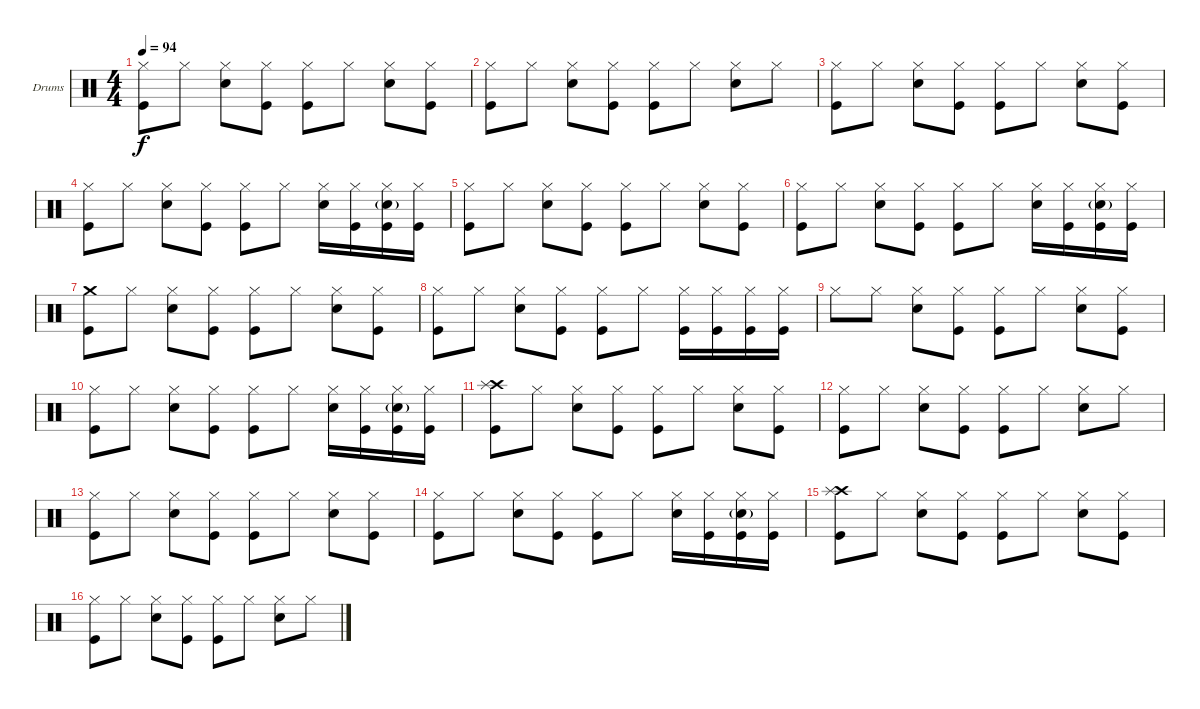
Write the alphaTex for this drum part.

\defaultSystemsLayout 4
\bracketExtendMode groupsimilarinstruments
\firstSystemTrackNameOrientation horizontal
\otherSystemsTrackNameOrientation horizontal
\track ("Drumkit" "Drums") {instrument percussion}
\staff {score}
\articulation defaults
\ts (4 4)
\tempo 94
\clef neutral
\ks c
("Kick (hit)" "Hi-Hat (closed)").8{dy f} "Hi-Hat (closed)".8 ("Hi-Hat (closed)" "Snare (hit) 2").8 ("Kick (hit)" "Hi-Hat (closed)").8 ("Kick (hit)" "Hi-Hat (closed)").8 "Hi-Hat (closed)".8 ("Snare (hit) 2" "Hi-Hat (closed)").8 ("Hi-Hat (closed)" "Kick (hit)").8 |
("Kick (hit)" "Hi-Hat (closed)").8 "Hi-Hat (closed)".8 ("Hi-Hat (closed)" "Snare (hit) 2").8 ("Hi-Hat (closed)" "Kick (hit)").8 ("Kick (hit)" "Hi-Hat (closed)").8 "Hi-Hat (closed)".8 ("Hi-Hat (closed)" "Snare (hit) 2").8 "Hi-Hat (closed)".8 |
("Kick (hit)" "Hi-Hat (closed)").8 "Hi-Hat (closed)".8 ("Hi-Hat (closed)" "Snare (hit) 2").8 ("Kick (hit)" "Hi-Hat (closed)").8 ("Kick (hit)" "Hi-Hat (closed)").8 "Hi-Hat (closed)".8 ("Snare (hit) 2" "Hi-Hat (closed)").8 ("Hi-Hat (closed)" "Kick (hit)").8 |
("Kick (hit)" "Hi-Hat (closed)").8 "Hi-Hat (closed)".8 ("Hi-Hat (closed)" "Snare (hit) 2").8 ("Hi-Hat (closed)" "Kick (hit)").8 ("Kick (hit)" "Hi-Hat (closed)").8 "Hi-Hat (closed)".8 ("Hi-Hat (closed)" "Snare (hit) 2").16 ("Hi-Hat (closed)" "Kick (hit)").16 ("Kick (hit)" "Hi-Hat (closed)" "Snare (hit) 2"{g}).16 ("Kick (hit)" "Hi-Hat (closed)").16 |
("Kick (hit)" "Hi-Hat (closed)").8 "Hi-Hat (closed)".8 ("Hi-Hat (closed)" "Snare (hit) 2").8 ("Kick (hit)" "Hi-Hat (closed)").8 ("Kick (hit)" "Hi-Hat (closed)").8 "Hi-Hat (closed)".8 ("Snare (hit) 2" "Hi-Hat (closed)").8 ("Hi-Hat (closed)" "Kick (hit)").8 |
("Kick (hit)" "Hi-Hat (closed)").8 "Hi-Hat (closed)".8 ("Hi-Hat (closed)" "Snare (hit) 2").8 ("Hi-Hat (closed)" "Kick (hit)").8 ("Kick (hit)" "Hi-Hat (closed)").8 "Hi-Hat (closed)".8 ("Hi-Hat (closed)" "Snare (hit) 2").16 ("Hi-Hat (closed)" "Kick (hit)").16 ("Kick (hit)" "Hi-Hat (closed)" "Snare (hit) 2"{g}).16 ("Kick (hit)" "Hi-Hat (closed)").16 |
("Kick (hit)" "Crash medium (hit)").8 "Hi-Hat (closed)".8 ("Hi-Hat (closed)" "Snare (hit) 2").8 ("Kick (hit)" "Hi-Hat (closed)").8 ("Kick (hit)" "Hi-Hat (closed)").8 "Hi-Hat (closed)".8 ("Snare (hit) 2" "Hi-Hat (closed)").8 ("Hi-Hat (closed)" "Kick (hit)").8 |
("Kick (hit)" "Hi-Hat (closed)").8 "Hi-Hat (closed)".8 ("Hi-Hat (closed)" "Snare (hit) 2").8 ("Hi-Hat (closed)" "Kick (hit)").8 ("Kick (hit)" "Hi-Hat (closed)").8 "Hi-Hat (closed)".8 ("Hi-Hat (closed)" "Kick (hit)").16 ("Hi-Hat (closed)" "Kick (hit)").16 ("Kick (hit)" "Hi-Hat (closed)").16 ("Kick (hit)" "Hi-Hat (closed)").16 |
"Hi-Hat (closed)".8 "Hi-Hat (closed)".8 ("Hi-Hat (closed)" "Snare (hit) 2").8 ("Kick (hit)" "Hi-Hat (closed)").8 ("Kick (hit)" "Hi-Hat (closed)").8 "Hi-Hat (closed)".8 ("Snare (hit) 2" "Hi-Hat (closed)").8 ("Hi-Hat (closed)" "Kick (hit)").8 |
("Kick (hit)" "Hi-Hat (closed)").8 "Hi-Hat (closed)".8 ("Hi-Hat (closed)" "Snare (hit) 2").8 ("Hi-Hat (closed)" "Kick (hit)").8 ("Kick (hit)" "Hi-Hat (closed)").8 "Hi-Hat (closed)".8 ("Hi-Hat (closed)" "Snare (hit) 2").16 ("Hi-Hat (closed)" "Kick (hit)").16 ("Kick (hit)" "Hi-Hat (closed)" "Snare (hit) 2"{g}).16 ("Kick (hit)" "Hi-Hat (closed)").16 |
("Kick (hit)" "Crash high (hit)" "Splash (hit)").8 "Hi-Hat (closed)".8 ("Hi-Hat (closed)" "Snare (hit) 2").8 ("Kick (hit)" "Hi-Hat (closed)").8 ("Kick (hit)" "Hi-Hat (closed)").8 "Hi-Hat (closed)".8 ("Snare (hit) 2" "Hi-Hat (closed)").8 ("Hi-Hat (closed)" "Kick (hit)").8 |
("Kick (hit)" "Hi-Hat (closed)").8 "Hi-Hat (closed)".8 ("Hi-Hat (closed)" "Snare (hit) 2").8 ("Hi-Hat (closed)" "Kick (hit)").8 ("Kick (hit)" "Hi-Hat (closed)").8 "Hi-Hat (closed)".8 ("Hi-Hat (closed)" "Snare (hit) 2").8 "Hi-Hat (closed)".8 |
("Kick (hit)" "Hi-Hat (closed)").8 "Hi-Hat (closed)".8 ("Hi-Hat (closed)" "Snare (hit) 2").8 ("Kick (hit)" "Hi-Hat (closed)").8 ("Kick (hit)" "Hi-Hat (closed)").8 "Hi-Hat (closed)".8 ("Snare (hit) 2" "Hi-Hat (closed)").8 ("Hi-Hat (closed)" "Kick (hit)").8 |
("Kick (hit)" "Hi-Hat (closed)").8 "Hi-Hat (closed)".8 ("Hi-Hat (closed)" "Snare (hit) 2").8 ("Hi-Hat (closed)" "Kick (hit)").8 ("Kick (hit)" "Hi-Hat (closed)").8 "Hi-Hat (closed)".8 ("Hi-Hat (closed)" "Snare (hit) 2").16 ("Hi-Hat (closed)" "Kick (hit)").16 ("Kick (hit)" "Hi-Hat (closed)" "Snare (hit) 2"{g}).16 ("Kick (hit)" "Hi-Hat (closed)").16 |
("Kick (hit)" "Crash high (hit)" "Splash (hit)").8 "Hi-Hat (closed)".8 ("Hi-Hat (closed)" "Snare (hit) 2").8 ("Kick (hit)" "Hi-Hat (closed)").8 ("Kick (hit)" "Hi-Hat (closed)").8 "Hi-Hat (closed)".8 ("Snare (hit) 2" "Hi-Hat (closed)").8 ("Hi-Hat (closed)" "Kick (hit)").8 |
("Kick (hit)" "Hi-Hat (closed)").8 "Hi-Hat (closed)".8 ("Hi-Hat (closed)" "Snare (hit) 2").8 ("Hi-Hat (closed)" "Kick (hit)").8 ("Kick (hit)" "Hi-Hat (closed)").8 "Hi-Hat (closed)".8 ("Hi-Hat (closed)" "Snare (hit) 2").8 "Hi-Hat (closed)".8
